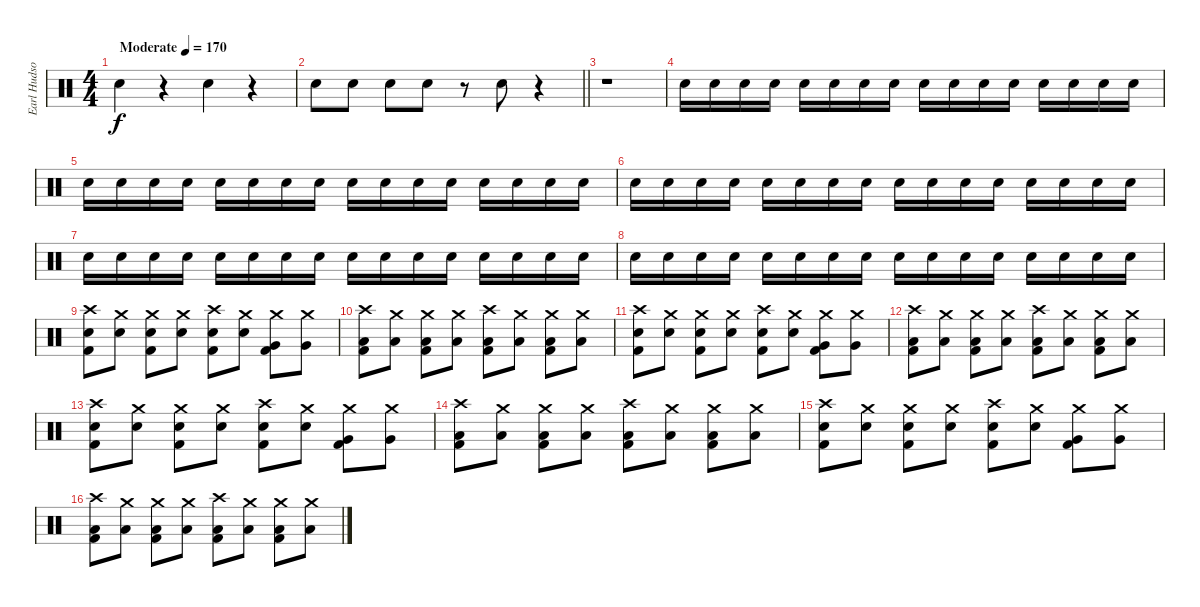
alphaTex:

\track ("Earl Hudson" "Earl Hudso") {instrument percussion}
\staff {score}
\articulation defaults
\ts (4 4)
\tempo (170 "Moderate")
\clef neutral
\ks c "Electric Snare (hit)".4{dy f}
r.4 "Electric Snare (hit)".4 r.4 |
\barLineRight lightlight "Electric Snare (hit)".8 "Electric Snare (hit)".8 "Electric Snare (hit)".8 "Electric Snare (hit)".8
r.8 "Electric Snare (hit)".8 r.4 |
r.1 |
"Electric Snare (hit)".16 "Electric Snare (hit)".16 "Electric Snare (hit)".16 "Electric Snare (hit)".16 "Electric Snare (hit)".16 "Electric Snare (hit)".16 "Electric Snare (hit)".16 "Electric Snare (hit)".16 "Electric Snare (hit)".16 "Electric Snare (hit)".16 "Electric Snare (hit)".16 "Electric Snare (hit)".16 "Electric Snare (hit)".16 "Electric Snare (hit)".16 "Electric Snare (hit)".16 "Electric Snare (hit)".16 |
"Electric Snare (hit)".16 "Electric Snare (hit)".16 "Electric Snare (hit)".16 "Electric Snare (hit)".16 "Electric Snare (hit)".16 "Electric Snare (hit)".16 "Electric Snare (hit)".16 "Electric Snare (hit)".16 "Electric Snare (hit)".16 "Electric Snare (hit)".16 "Electric Snare (hit)".16 "Electric Snare (hit)".16 "Electric Snare (hit)".16 "Electric Snare (hit)".16 "Electric Snare (hit)".16 "Electric Snare (hit)".16 |
"Electric Snare (hit)".16 "Electric Snare (hit)".16 "Electric Snare (hit)".16 "Electric Snare (hit)".16 "Electric Snare (hit)".16 "Electric Snare (hit)".16 "Electric Snare (hit)".16 "Electric Snare (hit)".16 "Electric Snare (hit)".16 "Electric Snare (hit)".16 "Electric Snare (hit)".16 "Electric Snare (hit)".16 "Electric Snare (hit)".16 "Electric Snare (hit)".16 "Electric Snare (hit)".16 "Electric Snare (hit)".16 |
"Electric Snare (hit)".16 "Electric Snare (hit)".16 "Electric Snare (hit)".16 "Electric Snare (hit)".16 "Electric Snare (hit)".16 "Electric Snare (hit)".16 "Electric Snare (hit)".16 "Electric Snare (hit)".16 "Electric Snare (hit)".16 "Electric Snare (hit)".16 "Electric Snare (hit)".16 "Electric Snare (hit)".16 "Electric Snare (hit)".16 "Electric Snare (hit)".16 "Electric Snare (hit)".16 "Electric Snare (hit)".16 |
"Electric Snare (hit)".16 "Electric Snare (hit)".16 "Electric Snare (hit)".16 "Electric Snare (hit)".16 "Electric Snare (hit)".16 "Electric Snare (hit)".16 "Electric Snare (hit)".16 "Electric Snare (hit)".16 "Electric Snare (hit)".16 "Electric Snare (hit)".16 "Electric Snare (hit)".16 "Electric Snare (hit)".16 "Electric Snare (hit)".16 "Electric Snare (hit)".16 "Electric Snare (hit)".16 "Electric Snare (hit)".16 |
("Crash high (hit)" "Snare (hit) 2" "Kick (hit) 2").8 ("Crash medium (hit)" "Snare (hit) 2").8 ("Crash medium (hit)" "Snare (hit) 2" "Kick (hit) 2").8 ("Crash medium (hit)" "Snare (hit) 2").8 ("Crash high (hit)" "Electric Snare (hit)" "Kick (hit) 2").8 ("Crash medium (hit)" "Electric Snare (hit)").8 ("Crash medium (hit)" "Very Low Tom (hit)" "Kick (hit) 2").8 ("Crash medium (hit)" "Very Low Tom (hit)").8 |
("Crash high (hit)" "Low Tom (hit)" "Kick (hit) 2").8 ("Crash medium (hit)" "Low Tom (hit)").8 ("Crash medium (hit)" "Low Tom (hit)" "Kick (hit) 2").8 ("Crash medium (hit)" "Low Tom (hit)").8 ("Crash high (hit)" "Low Tom (hit)" "Kick (hit) 2").8 ("Crash medium (hit)" "Low Tom (hit)").8 ("Crash medium (hit)" "Low Tom (hit)" "Kick (hit) 2").8 ("Crash medium (hit)" "Low Tom (hit)").8 |
("Crash high (hit)" "Snare (hit) 2" "Kick (hit) 2").8 ("Crash medium (hit)" "Snare (hit) 2").8 ("Crash medium (hit)" "Snare (hit) 2" "Kick (hit) 2").8 ("Crash medium (hit)" "Snare (hit) 2").8 ("Crash high (hit)" "Electric Snare (hit)" "Kick (hit) 2").8 ("Crash medium (hit)" "Electric Snare (hit)").8 ("Crash medium (hit)" "Very Low Tom (hit)" "Kick (hit) 2").8 ("Crash medium (hit)" "Very Low Tom (hit)").8 |
("Crash high (hit)" "Low Tom (hit)" "Kick (hit) 2").8 ("Crash medium (hit)" "Low Tom (hit)").8 ("Crash medium (hit)" "Low Tom (hit)" "Kick (hit) 2").8 ("Crash medium (hit)" "Low Tom (hit)").8 ("Crash high (hit)" "Low Tom (hit)" "Kick (hit) 2").8 ("Crash medium (hit)" "Low Tom (hit)").8 ("Crash medium (hit)" "Low Tom (hit)" "Kick (hit) 2").8 ("Crash medium (hit)" "Low Tom (hit)").8 |
("Crash high (hit)" "Snare (hit) 2" "Kick (hit) 2").8 ("Crash medium (hit)" "Snare (hit) 2").8 ("Crash medium (hit)" "Snare (hit) 2" "Kick (hit) 2").8 ("Crash medium (hit)" "Snare (hit) 2").8 ("Crash high (hit)" "Electric Snare (hit)" "Kick (hit) 2").8 ("Crash medium (hit)" "Electric Snare (hit)").8 ("Crash medium (hit)" "Very Low Tom (hit)" "Kick (hit) 2").8 ("Crash medium (hit)" "Very Low Tom (hit)").8 |
("Crash high (hit)" "Low Tom (hit)" "Kick (hit) 2").8 ("Crash medium (hit)" "Low Tom (hit)").8 ("Crash medium (hit)" "Low Tom (hit)" "Kick (hit) 2").8 ("Crash medium (hit)" "Low Tom (hit)").8 ("Crash high (hit)" "Low Tom (hit)" "Kick (hit) 2").8 ("Crash medium (hit)" "Low Tom (hit)").8 ("Crash medium (hit)" "Low Tom (hit)" "Kick (hit) 2").8 ("Crash medium (hit)" "Low Tom (hit)").8 |
("Crash high (hit)" "Snare (hit) 2" "Kick (hit) 2").8 ("Crash medium (hit)" "Snare (hit) 2").8 ("Crash medium (hit)" "Snare (hit) 2" "Kick (hit) 2").8 ("Crash medium (hit)" "Snare (hit) 2").8 ("Crash high (hit)" "Electric Snare (hit)" "Kick (hit) 2").8 ("Crash medium (hit)" "Electric Snare (hit)").8 ("Crash medium (hit)" "Very Low Tom (hit)" "Kick (hit) 2").8 ("Crash medium (hit)" "Very Low Tom (hit)").8 |
("Crash high (hit)" "Low Tom (hit)" "Kick (hit) 2").8 ("Crash medium (hit)" "Low Tom (hit)").8 ("Crash medium (hit)" "Low Tom (hit)" "Kick (hit) 2").8 ("Crash medium (hit)" "Low Tom (hit)").8 ("Crash high (hit)" "Low Tom (hit)" "Kick (hit) 2").8 ("Crash medium (hit)" "Low Tom (hit)").8 ("Crash medium (hit)" "Low Tom (hit)" "Kick (hit) 2").8 ("Crash medium (hit)" "Low Tom (hit)").8
